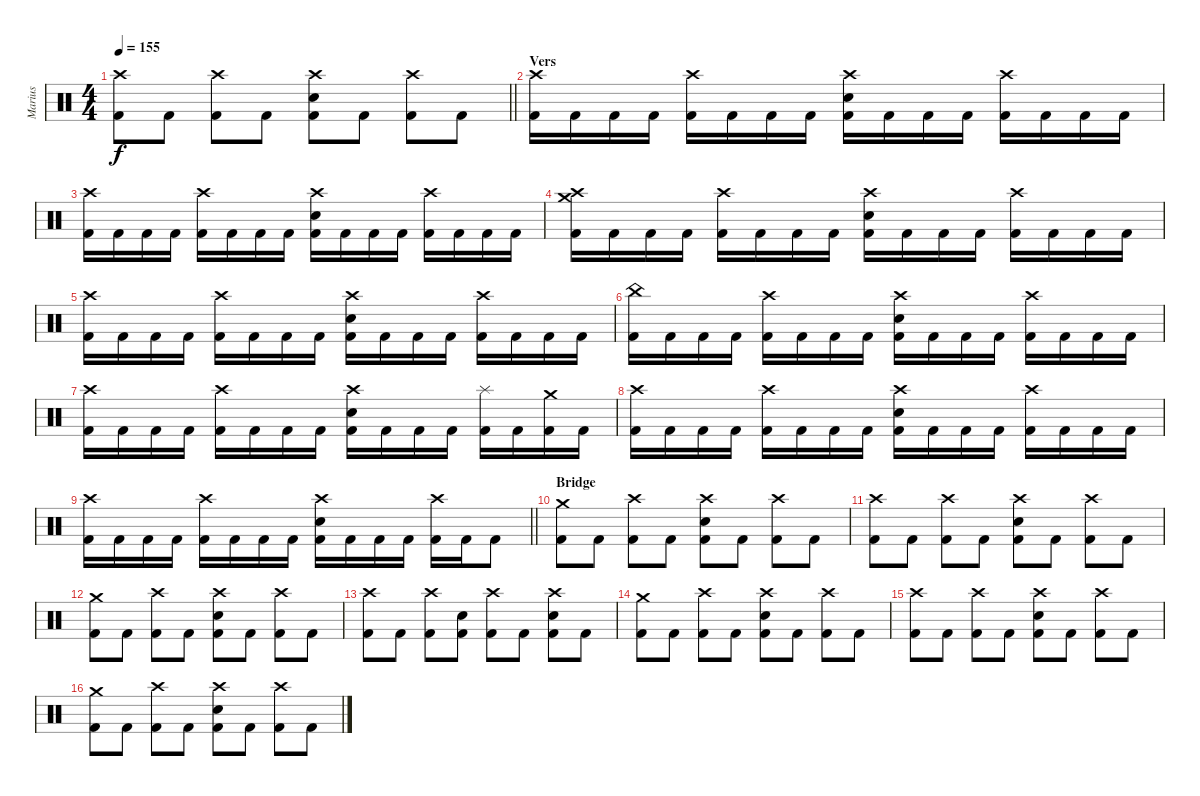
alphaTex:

\track ("Marius" "Marius") {instrument percussion}
\staff {score}
\articulation defaults
\ts (4 4)
\tempo 155
\clef neutral
\barLineRight lightlight
\ks c
("Crash high (hit)" "Kick (hit) 2").8{dy f} "Kick (hit) 2".8 ("Crash high (hit)" "Kick (hit) 2").8 "Kick (hit) 2".8 ("Crash high (hit)" "Snare (hit) 2" "Kick (hit) 2").8 "Kick (hit) 2".8 ("Crash high (hit)" "Kick (hit) 2").8 "Kick (hit) 2".8 |
\section ("" "Vers")
("Crash high (hit)" "Kick (hit) 2").16 "Kick (hit) 2".16 "Kick (hit) 2".16 "Kick (hit) 2".16 ("Crash high (hit)" "Kick (hit) 2").16 "Kick (hit) 2".16 "Kick (hit) 2".16 "Kick (hit) 2".16 ("Crash high (hit)" "Snare (hit) 2" "Kick (hit) 2").16 "Kick (hit) 2".16 "Kick (hit) 2".16 "Kick (hit) 2".16 ("Crash high (hit)" "Kick (hit) 2").16 "Kick (hit) 2".16 "Kick (hit) 2".16 "Kick (hit) 2".16 |
("Crash high (hit)" "Kick (hit) 2").16 "Kick (hit) 2".16 "Kick (hit) 2".16 "Kick (hit) 2".16 ("Crash high (hit)" "Kick (hit) 2").16 "Kick (hit) 2".16 "Kick (hit) 2".16 "Kick (hit) 2".16 ("Crash high (hit)" "Snare (hit) 2" "Kick (hit) 2").16 "Kick (hit) 2".16 "Kick (hit) 2".16 "Kick (hit) 2".16 ("Crash high (hit)" "Kick (hit) 2").16 "Kick (hit) 2".16 "Kick (hit) 2".16 "Kick (hit) 2".16 |
("Crash high (hit)" "Crash medium (hit)" "Kick (hit) 2").16 "Kick (hit) 2".16 "Kick (hit) 2".16 "Kick (hit) 2".16 ("Crash high (hit)" "Kick (hit) 2").16 "Kick (hit) 2".16 "Kick (hit) 2".16 "Kick (hit) 2".16 ("Crash high (hit)" "Snare (hit) 2" "Kick (hit) 2").16 "Kick (hit) 2".16 "Kick (hit) 2".16 "Kick (hit) 2".16 ("Crash high (hit)" "Kick (hit) 2").16 "Kick (hit) 2".16 "Kick (hit) 2".16 "Kick (hit) 2".16 |
("Crash high (hit)" "Kick (hit) 2").16 "Kick (hit) 2".16 "Kick (hit) 2".16 "Kick (hit) 2".16 ("Crash high (hit)" "Kick (hit) 2").16 "Kick (hit) 2".16 "Kick (hit) 2".16 "Kick (hit) 2".16 ("Crash high (hit)" "Snare (hit) 2" "Kick (hit) 2").16 "Kick (hit) 2".16 "Kick (hit) 2".16 "Kick (hit) 2".16 ("Crash high (hit)" "Kick (hit) 2").16 "Kick (hit) 2".16 "Kick (hit) 2".16 "Kick (hit) 2".16 |
("China (hit)" "Kick (hit) 2").16 "Kick (hit) 2".16 "Kick (hit) 2".16 "Kick (hit) 2".16 ("Crash high (hit)" "Kick (hit) 2").16 "Kick (hit) 2".16 "Kick (hit) 2".16 "Kick (hit) 2".16 ("Crash high (hit)" "Snare (hit) 2" "Kick (hit) 2").16 "Kick (hit) 2".16 "Kick (hit) 2".16 "Kick (hit) 2".16 ("Crash high (hit)" "Kick (hit) 2").16 "Kick (hit) 2".16 "Kick (hit) 2".16 "Kick (hit) 2".16 |
("Crash high (hit)" "Kick (hit) 2").16 "Kick (hit) 2".16 "Kick (hit) 2".16 "Kick (hit) 2".16 ("Crash high (hit)" "Kick (hit) 2").16 "Kick (hit) 2".16 "Kick (hit) 2".16 "Kick (hit) 2".16 ("Crash high (hit)" "Snare (hit) 2" "Kick (hit) 2").16 "Kick (hit) 2".16 "Kick (hit) 2".16 "Kick (hit) 2".16 ("Splash (hit)" "Kick (hit) 2").16 "Kick (hit) 2".16 ("Crash medium (hit)" "Kick (hit) 2").16 "Kick (hit) 2".16 |
("Crash high (hit)" "Kick (hit) 2").16 "Kick (hit) 2".16 "Kick (hit) 2".16 "Kick (hit) 2".16 ("Crash high (hit)" "Kick (hit) 2").16 "Kick (hit) 2".16 "Kick (hit) 2".16 "Kick (hit) 2".16 ("Crash high (hit)" "Snare (hit) 2" "Kick (hit) 2").16 "Kick (hit) 2".16 "Kick (hit) 2".16 "Kick (hit) 2".16 ("Crash high (hit)" "Kick (hit) 2").16 "Kick (hit) 2".16 "Kick (hit) 2".16 "Kick (hit) 2".16 |
\barLineRight lightlight
("Crash high (hit)" "Kick (hit) 2").16 "Kick (hit) 2".16 "Kick (hit) 2".16 "Kick (hit) 2".16 ("Crash high (hit)" "Kick (hit) 2").16 "Kick (hit) 2".16 "Kick (hit) 2".16 "Kick (hit) 2".16 ("Crash high (hit)" "Snare (hit) 2" "Kick (hit) 2").16 "Kick (hit) 2".16 "Kick (hit) 2".16 "Kick (hit) 2".16 ("Crash high (hit)" "Kick (hit) 2").16 "Kick (hit) 2".16 "Kick (hit) 2".8 |
\section ("" "Bridge")
("Crash medium (hit)" "Kick (hit) 2").8 "Kick (hit) 2".8 ("Crash high (hit)" "Kick (hit) 2").8 "Kick (hit) 2".8 ("Crash high (hit)" "Snare (hit) 2" "Kick (hit) 2").8 "Kick (hit) 2".8 ("Crash high (hit)" "Kick (hit) 2").8 "Kick (hit) 2".8 |
("Crash high (hit)" "Kick (hit) 2").8 "Kick (hit) 2".8 ("Crash high (hit)" "Kick (hit) 2").8 "Kick (hit) 2".8 ("Crash high (hit)" "Snare (hit) 2" "Kick (hit) 2").8 "Kick (hit) 2".8 ("Crash high (hit)" "Kick (hit) 2").8 "Kick (hit) 2".8 |
("Crash medium (hit)" "Kick (hit) 2").8 "Kick (hit) 2".8 ("Crash high (hit)" "Kick (hit) 2").8 "Kick (hit) 2".8 ("Crash high (hit)" "Snare (hit) 2" "Kick (hit) 2").8 "Kick (hit) 2".8 ("Crash high (hit)" "Kick (hit) 2").8 "Kick (hit) 2".8 |
("Crash high (hit)" "Kick (hit) 2").8 "Kick (hit) 2".8 ("Crash high (hit)" "Kick (hit) 2").8 ("Snare (hit) 2" "Kick (hit) 2").8 ("Crash high (hit)" "Kick (hit) 2").8 "Kick (hit) 2".8 ("Crash high (hit)" "Snare (hit) 2" "Kick (hit) 2").8 "Kick (hit) 2".8 |
("Crash medium (hit)" "Kick (hit) 2").8 "Kick (hit) 2".8 ("Crash high (hit)" "Kick (hit) 2").8 "Kick (hit) 2".8 ("Crash high (hit)" "Snare (hit) 2" "Kick (hit) 2").8 "Kick (hit) 2".8 ("Crash high (hit)" "Kick (hit) 2").8 "Kick (hit) 2".8 |
("Crash high (hit)" "Kick (hit) 2").8 "Kick (hit) 2".8 ("Crash high (hit)" "Kick (hit) 2").8 "Kick (hit) 2".8 ("Crash high (hit)" "Snare (hit) 2" "Kick (hit) 2").8 "Kick (hit) 2".8 ("Crash high (hit)" "Kick (hit) 2").8 "Kick (hit) 2".8 |
("Crash medium (hit)" "Kick (hit) 2").8 "Kick (hit) 2".8 ("Crash high (hit)" "Kick (hit) 2").8 "Kick (hit) 2".8 ("Crash high (hit)" "Snare (hit) 2" "Kick (hit) 2").8 "Kick (hit) 2".8 ("Crash high (hit)" "Kick (hit) 2").8 "Kick (hit) 2".8
